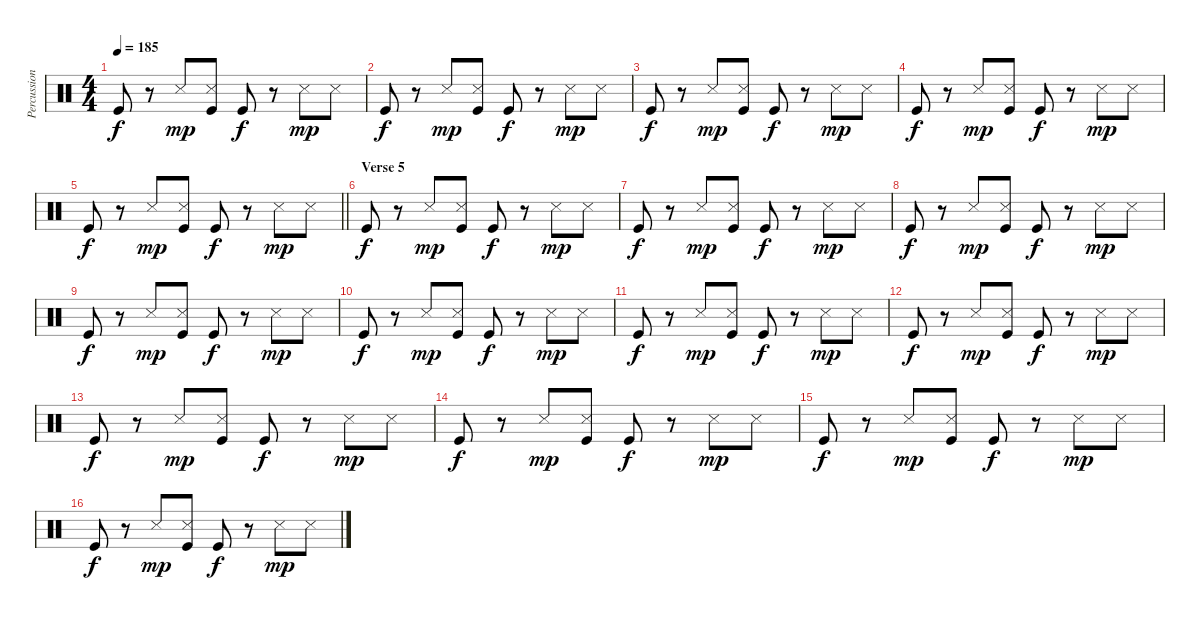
\track ("Percussion" "Percussion") {instrument percussion}
\staff {score}
\articulation defaults
\ts (4 4)
\tempo 185
\clef neutral
\ks c "Kick (hit)".8{dy f}
r.8 "Metronome (hit)".8{dy mp} ("Metronome (hit)" "Kick (hit)").8 "Kick (hit)".8{dy f} r.8 "Snare (side stick) 3".8{dy mp} "Snare (side stick) 3".8 |
"Kick (hit)".8{dy f} r.8 "Metronome (hit)".8{dy mp} ("Metronome (hit)" "Kick (hit)").8 "Kick (hit)".8{dy f} r.8 "Snare (side stick) 3".8{dy mp} "Snare (side stick) 3".8 |
"Kick (hit)".8{dy f} r.8 "Metronome (hit)".8{dy mp} ("Metronome (hit)" "Kick (hit)").8 "Kick (hit)".8{dy f} r.8 "Snare (side stick) 3".8{dy mp} "Snare (side stick) 3".8 |
"Kick (hit)".8{dy f} r.8 "Metronome (hit)".8{dy mp} ("Metronome (hit)" "Kick (hit)").8 "Kick (hit)".8{dy f} r.8 "Snare (side stick) 3".8{dy mp} "Snare (side stick) 3".8 |
\barLineRight lightlight "Kick (hit)".8{dy f}
r.8 "Metronome (hit)".8{dy mp} ("Metronome (hit)" "Kick (hit)").8 "Kick (hit)".8{dy f} r.8 "Snare (side stick) 3".8{dy mp} "Snare (side stick) 3".8 |
\section ("" "Verse 5")
"Kick (hit)".8{dy f} r.8 "Metronome (hit)".8{dy mp} ("Metronome (hit)" "Kick (hit)").8 "Kick (hit)".8{dy f} r.8 "Snare (side stick) 3".8{dy mp} "Snare (side stick) 3".8 |
"Kick (hit)".8{dy f} r.8 "Metronome (hit)".8{dy mp} ("Metronome (hit)" "Kick (hit)").8 "Kick (hit)".8{dy f} r.8 "Snare (side stick) 3".8{dy mp} "Snare (side stick) 3".8 |
"Kick (hit)".8{dy f} r.8 "Metronome (hit)".8{dy mp} ("Metronome (hit)" "Kick (hit)").8 "Kick (hit)".8{dy f} r.8 "Snare (side stick) 3".8{dy mp} "Snare (side stick) 3".8 |
"Kick (hit)".8{dy f} r.8 "Metronome (hit)".8{dy mp} ("Metronome (hit)" "Kick (hit)").8 "Kick (hit)".8{dy f} r.8 "Snare (side stick) 3".8{dy mp} "Snare (side stick) 3".8 |
"Kick (hit)".8{dy f} r.8 "Metronome (hit)".8{dy mp} ("Metronome (hit)" "Kick (hit)").8 "Kick (hit)".8{dy f} r.8 "Snare (side stick) 3".8{dy mp} "Snare (side stick) 3".8 |
"Kick (hit)".8{dy f} r.8 "Metronome (hit)".8{dy mp} ("Metronome (hit)" "Kick (hit)").8 "Kick (hit)".8{dy f} r.8 "Snare (side stick) 3".8{dy mp} "Snare (side stick) 3".8 |
"Kick (hit)".8{dy f} r.8 "Metronome (hit)".8{dy mp} ("Metronome (hit)" "Kick (hit)").8 "Kick (hit)".8{dy f} r.8 "Snare (side stick) 3".8{dy mp} "Snare (side stick) 3".8 |
"Kick (hit)".8{dy f} r.8 "Metronome (hit)".8{dy mp} ("Metronome (hit)" "Kick (hit)").8 "Kick (hit)".8{dy f} r.8 "Snare (side stick) 3".8{dy mp} "Snare (side stick) 3".8 |
"Kick (hit)".8{dy f} r.8 "Metronome (hit)".8{dy mp} ("Metronome (hit)" "Kick (hit)").8 "Kick (hit)".8{dy f} r.8 "Snare (side stick) 3".8{dy mp} "Snare (side stick) 3".8 |
"Kick (hit)".8{dy f} r.8 "Metronome (hit)".8{dy mp} ("Metronome (hit)" "Kick (hit)").8 "Kick (hit)".8{dy f} r.8 "Snare (side stick) 3".8{dy mp} "Snare (side stick) 3".8 |
"Kick (hit)".8{dy f} r.8 "Metronome (hit)".8{dy mp} ("Metronome (hit)" "Kick (hit)").8 "Kick (hit)".8{dy f} r.8 "Snare (side stick) 3".8{dy mp} "Snare (side stick) 3".8
